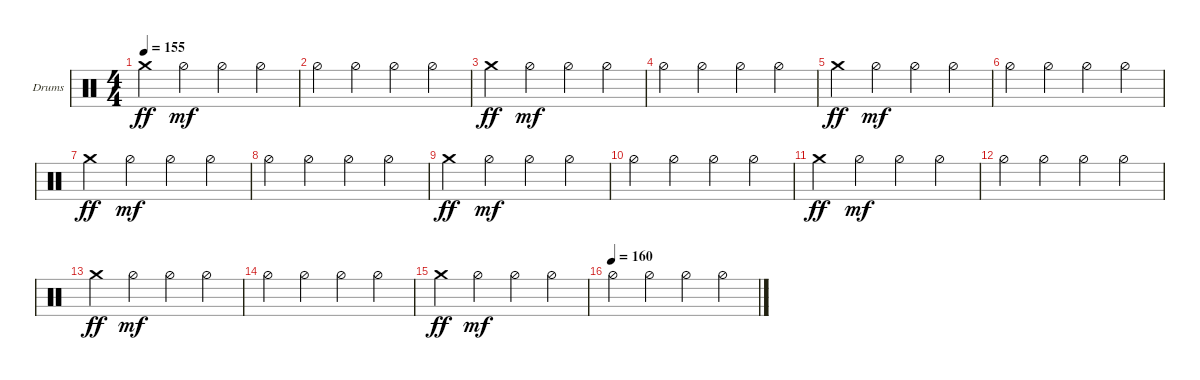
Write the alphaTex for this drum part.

\defaultSystemsLayout 4
\bracketExtendMode groupsimilarinstruments
\firstSystemTrackNameOrientation horizontal
\otherSystemsTrackNameOrientation horizontal
\track ("Drumkit" "Drums") {instrument percussion}
\staff {score}
\articulation defaults
\ts (4 4)
\tempo 155
\clef neutral
\scale
0.333333
\ks c "Crash medium (hit)".4{dy ff} "Hi-Hat (half)".4{dy mf} "Hi-Hat (half)".4 "Hi-Hat (half)".4
|
\scale
0.333333 "Hi-Hat (half)".4 "Hi-Hat (half)".4 "Hi-Hat (half)".4 "Hi-Hat (half)".4 |
\scale
0.333333 "Crash medium (hit)".4{dy ff} "Hi-Hat (half)".4{dy mf} "Hi-Hat (half)".4 "Hi-Hat (half)".4 |
\scale
0.333333 "Hi-Hat (half)".4 "Hi-Hat (half)".4 "Hi-Hat (half)".4 "Hi-Hat (half)".4 |
\scale
0.333333 "Crash medium (hit)".4{dy ff} "Hi-Hat (half)".4{dy mf} "Hi-Hat (half)".4 "Hi-Hat (half)".4 |
\scale
0.333333 "Hi-Hat (half)".4 "Hi-Hat (half)".4 "Hi-Hat (half)".4 "Hi-Hat (half)".4 |
\scale
0.333333 "Crash medium (hit)".4{dy ff} "Hi-Hat (half)".4{dy mf} "Hi-Hat (half)".4 "Hi-Hat (half)".4 |
\scale
0.333333 "Hi-Hat (half)".4 "Hi-Hat (half)".4 "Hi-Hat (half)".4 "Hi-Hat (half)".4 |
\scale
0.333333 "Crash medium (hit)".4{dy ff} "Hi-Hat (half)".4{dy mf} "Hi-Hat (half)".4 "Hi-Hat (half)".4 |
\scale
0.333333 "Hi-Hat (half)".4 "Hi-Hat (half)".4 "Hi-Hat (half)".4 "Hi-Hat (half)".4 |
\scale
0.333333 "Crash medium (hit)".4{dy ff} "Hi-Hat (half)".4{dy mf} "Hi-Hat (half)".4 "Hi-Hat (half)".4 |
\scale
0.333333 "Hi-Hat (half)".4 "Hi-Hat (half)".4 "Hi-Hat (half)".4 "Hi-Hat (half)".4 |
\scale
0.333333 "Crash medium (hit)".4{dy ff} "Hi-Hat (half)".4{dy mf} "Hi-Hat (half)".4 "Hi-Hat (half)".4 |
\scale
0.333333 "Hi-Hat (half)".4 "Hi-Hat (half)".4 "Hi-Hat (half)".4 "Hi-Hat (half)".4 |
\scale
0.333333 "Crash medium (hit)".4{dy ff} "Hi-Hat (half)".4{dy mf} "Hi-Hat (half)".4 "Hi-Hat (half)".4 |
\tempo 160
\scale
0.333333 "Hi-Hat (half)".4 "Hi-Hat (half)".4 "Hi-Hat (half)".4 "Hi-Hat (half)".4
